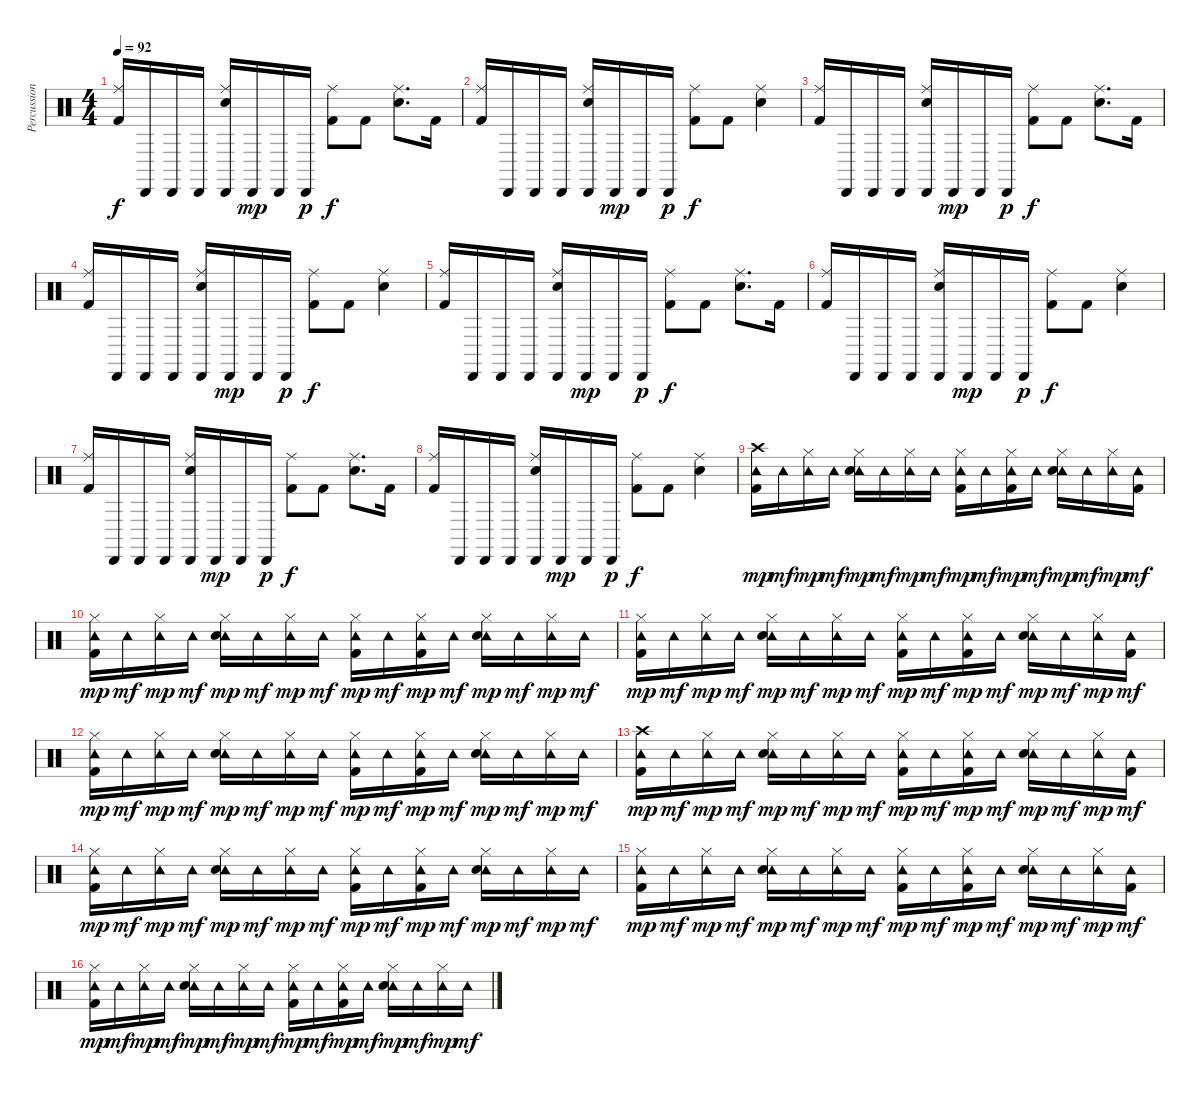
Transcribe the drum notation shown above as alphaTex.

\track ("Percussion" "Percussion") {instrument percussion}
\staff {score}
\articulation defaults
\ts (4 4)
\tempo 92
\clef neutral
\ks c
("Ride (middle)" "Kick (hit) 2").16{dy f} "Cabasa (hit)".16 "Cabasa (hit)".16 "Cabasa (hit)".16 ("Cabasa (hit)" "Ride (middle)" "Electric Snare (hit)").16 "Cabasa (hit)".16{dy mp} "Cabasa (hit)".16 "Cabasa (hit)".16{dy p} ("Ride (middle)" "Kick (hit) 2").8{dy f} "Kick (hit) 2".8 ("Ride (middle)" "Electric Snare (hit)").8{d} "Kick (hit) 2".16 |
("Ride (middle)" "Kick (hit) 2").16 "Cabasa (hit)".16 "Cabasa (hit)".16 "Cabasa (hit)".16 ("Cabasa (hit)" "Ride (middle)" "Electric Snare (hit)").16 "Cabasa (hit)".16{dy mp} "Cabasa (hit)".16 "Cabasa (hit)".16{dy p} ("Ride (middle)" "Kick (hit) 2").8{dy f} "Kick (hit) 2".8 ("Ride (middle)" "Electric Snare (hit)").4 |
("Ride (middle)" "Kick (hit) 2").16 "Cabasa (hit)".16 "Cabasa (hit)".16 "Cabasa (hit)".16 ("Cabasa (hit)" "Ride (middle)" "Electric Snare (hit)").16 "Cabasa (hit)".16{dy mp} "Cabasa (hit)".16 "Cabasa (hit)".16{dy p} ("Ride (middle)" "Kick (hit) 2").8{dy f} "Kick (hit) 2".8 ("Ride (middle)" "Electric Snare (hit)").8{d} "Kick (hit) 2".16 |
("Ride (middle)" "Kick (hit) 2").16 "Cabasa (hit)".16 "Cabasa (hit)".16 "Cabasa (hit)".16 ("Cabasa (hit)" "Ride (middle)" "Electric Snare (hit)").16 "Cabasa (hit)".16{dy mp} "Cabasa (hit)".16 "Cabasa (hit)".16{dy p} ("Ride (middle)" "Kick (hit) 2").8{dy f} "Kick (hit) 2".8 ("Ride (middle)" "Electric Snare (hit)").4 |
("Ride (middle)" "Kick (hit) 2").16 "Cabasa (hit)".16 "Cabasa (hit)".16 "Cabasa (hit)".16 ("Cabasa (hit)" "Ride (middle)" "Electric Snare (hit)").16 "Cabasa (hit)".16{dy mp} "Cabasa (hit)".16 "Cabasa (hit)".16{dy p} ("Ride (middle)" "Kick (hit) 2").8{dy f} "Kick (hit) 2".8 ("Ride (middle)" "Electric Snare (hit)").8{d} "Kick (hit) 2".16 |
("Ride (middle)" "Kick (hit) 2").16 "Cabasa (hit)".16 "Cabasa (hit)".16 "Cabasa (hit)".16 ("Cabasa (hit)" "Ride (middle)" "Electric Snare (hit)").16 "Cabasa (hit)".16{dy mp} "Cabasa (hit)".16 "Cabasa (hit)".16{dy p} ("Ride (middle)" "Kick (hit) 2").8{dy f} "Kick (hit) 2".8 ("Ride (middle)" "Electric Snare (hit)").4 |
("Ride (middle)" "Kick (hit) 2").16 "Cabasa (hit)".16 "Cabasa (hit)".16 "Cabasa (hit)".16 ("Cabasa (hit)" "Ride (middle)" "Electric Snare (hit)").16 "Cabasa (hit)".16{dy mp} "Cabasa (hit)".16 "Cabasa (hit)".16{dy p} ("Ride (middle)" "Kick (hit) 2").8{dy f} "Kick (hit) 2".8 ("Ride (middle)" "Electric Snare (hit)").8{d} "Kick (hit) 2".16 |
("Ride (middle)" "Kick (hit) 2").16 "Cabasa (hit)".16 "Cabasa (hit)".16 "Cabasa (hit)".16 ("Cabasa (hit)" "Ride (middle)" "Electric Snare (hit)").16 "Cabasa (hit)".16{dy mp} "Cabasa (hit)".16 "Cabasa (hit)".16{dy p} ("Ride (middle)" "Kick (hit) 2").8{dy f} "Kick (hit) 2".8 ("Ride (middle)" "Electric Snare (hit)").4 |
("Tambourine (hit)" "Crash high (hit)" "Kick (hit) 2").16{dy mp} "Tambourine (hit)".16{dy mf} ("Tambourine (hit)" "Hi-Hat (closed)").16{dy mp} "Tambourine (hit)".16{dy mf} ("Tambourine (hit)" "Hi-Hat (closed)" "Electric Snare (hit)").16{dy mp} "Tambourine (hit)".16{dy mf} ("Tambourine (hit)" "Hi-Hat (closed)").16{dy mp} "Tambourine (hit)".16{dy mf} ("Tambourine (hit)" "Hi-Hat (closed)" "Kick (hit) 2").16{dy mp} "Tambourine (hit)".16{dy mf} ("Tambourine (hit)" "Hi-Hat (closed)" "Kick (hit) 2").16{dy mp} "Tambourine (hit)".16{dy mf} ("Tambourine (hit)" "Hi-Hat (closed)" "Electric Snare (hit)").16{dy mp} "Tambourine (hit)".16{dy mf} ("Tambourine (hit)" "Hi-Hat (closed)").16{dy mp} ("Tambourine (hit)" "Kick (hit) 2").16{dy mf} |
("Tambourine (hit)" "Hi-Hat (closed)" "Kick (hit) 2").16{dy mp} "Tambourine (hit)".16{dy mf} ("Tambourine (hit)" "Hi-Hat (closed)").16{dy mp} "Tambourine (hit)".16{dy mf} ("Tambourine (hit)" "Hi-Hat (closed)" "Electric Snare (hit)").16{dy mp} "Tambourine (hit)".16{dy mf} ("Tambourine (hit)" "Hi-Hat (closed)").16{dy mp} "Tambourine (hit)".16{dy mf} ("Tambourine (hit)" "Hi-Hat (closed)" "Kick (hit) 2").16{dy mp} "Tambourine (hit)".16{dy mf} ("Tambourine (hit)" "Hi-Hat (closed)" "Kick (hit) 2").16{dy mp} "Tambourine (hit)".16{dy mf} ("Tambourine (hit)" "Hi-Hat (closed)" "Electric Snare (hit)").16{dy mp} "Tambourine (hit)".16{dy mf} ("Tambourine (hit)" "Hi-Hat (closed)").16{dy mp} "Tambourine (hit)".16{dy mf} |
("Tambourine (hit)" "Hi-Hat (closed)" "Kick (hit) 2").16{dy mp} "Tambourine (hit)".16{dy mf} ("Tambourine (hit)" "Hi-Hat (closed)").16{dy mp} "Tambourine (hit)".16{dy mf} ("Tambourine (hit)" "Hi-Hat (closed)" "Electric Snare (hit)").16{dy mp} "Tambourine (hit)".16{dy mf} ("Tambourine (hit)" "Hi-Hat (closed)").16{dy mp} "Tambourine (hit)".16{dy mf} ("Tambourine (hit)" "Hi-Hat (closed)" "Kick (hit) 2").16{dy mp} "Tambourine (hit)".16{dy mf} ("Tambourine (hit)" "Hi-Hat (closed)" "Kick (hit) 2").16{dy mp} "Tambourine (hit)".16{dy mf} ("Tambourine (hit)" "Hi-Hat (closed)" "Electric Snare (hit)").16{dy mp} "Tambourine (hit)".16{dy mf} ("Tambourine (hit)" "Hi-Hat (closed)").16{dy mp} ("Tambourine (hit)" "Kick (hit) 2").16{dy mf} |
("Tambourine (hit)" "Hi-Hat (closed)" "Kick (hit) 2").16{dy mp} "Tambourine (hit)".16{dy mf} ("Tambourine (hit)" "Hi-Hat (closed)").16{dy mp} "Tambourine (hit)".16{dy mf} ("Tambourine (hit)" "Hi-Hat (closed)" "Electric Snare (hit)").16{dy mp} "Tambourine (hit)".16{dy mf} ("Tambourine (hit)" "Hi-Hat (closed)").16{dy mp} "Tambourine (hit)".16{dy mf} ("Tambourine (hit)" "Hi-Hat (closed)" "Kick (hit) 2").16{dy mp} "Tambourine (hit)".16{dy mf} ("Tambourine (hit)" "Hi-Hat (closed)" "Kick (hit) 2").16{dy mp} "Tambourine (hit)".16{dy mf} ("Tambourine (hit)" "Hi-Hat (closed)" "Electric Snare (hit)").16{dy mp} "Tambourine (hit)".16{dy mf} ("Tambourine (hit)" "Hi-Hat (closed)").16{dy mp} "Tambourine (hit)".16{dy mf} |
("Tambourine (hit)" "Crash high (hit)" "Kick (hit) 2").16{dy mp} "Tambourine (hit)".16{dy mf} ("Tambourine (hit)" "Hi-Hat (closed)").16{dy mp} "Tambourine (hit)".16{dy mf} ("Tambourine (hit)" "Hi-Hat (closed)" "Electric Snare (hit)").16{dy mp} "Tambourine (hit)".16{dy mf} ("Tambourine (hit)" "Hi-Hat (closed)").16{dy mp} "Tambourine (hit)".16{dy mf} ("Tambourine (hit)" "Hi-Hat (closed)" "Kick (hit) 2").16{dy mp} "Tambourine (hit)".16{dy mf} ("Tambourine (hit)" "Hi-Hat (closed)" "Kick (hit) 2").16{dy mp} "Tambourine (hit)".16{dy mf} ("Tambourine (hit)" "Hi-Hat (closed)" "Electric Snare (hit)").16{dy mp} "Tambourine (hit)".16{dy mf} ("Tambourine (hit)" "Hi-Hat (closed)").16{dy mp} ("Tambourine (hit)" "Kick (hit) 2").16{dy mf} |
("Tambourine (hit)" "Hi-Hat (closed)" "Kick (hit) 2").16{dy mp} "Tambourine (hit)".16{dy mf} ("Tambourine (hit)" "Hi-Hat (closed)").16{dy mp} "Tambourine (hit)".16{dy mf} ("Tambourine (hit)" "Hi-Hat (closed)" "Electric Snare (hit)").16{dy mp} "Tambourine (hit)".16{dy mf} ("Tambourine (hit)" "Hi-Hat (closed)").16{dy mp} "Tambourine (hit)".16{dy mf} ("Tambourine (hit)" "Hi-Hat (closed)" "Kick (hit) 2").16{dy mp} "Tambourine (hit)".16{dy mf} ("Tambourine (hit)" "Hi-Hat (closed)" "Kick (hit) 2").16{dy mp} "Tambourine (hit)".16{dy mf} ("Tambourine (hit)" "Hi-Hat (closed)" "Electric Snare (hit)").16{dy mp} "Tambourine (hit)".16{dy mf} ("Tambourine (hit)" "Hi-Hat (closed)").16{dy mp} "Tambourine (hit)".16{dy mf} |
("Tambourine (hit)" "Hi-Hat (closed)" "Kick (hit) 2").16{dy mp} "Tambourine (hit)".16{dy mf} ("Tambourine (hit)" "Hi-Hat (closed)").16{dy mp} "Tambourine (hit)".16{dy mf} ("Tambourine (hit)" "Hi-Hat (closed)" "Electric Snare (hit)").16{dy mp} "Tambourine (hit)".16{dy mf} ("Tambourine (hit)" "Hi-Hat (closed)").16{dy mp} "Tambourine (hit)".16{dy mf} ("Tambourine (hit)" "Hi-Hat (closed)" "Kick (hit) 2").16{dy mp} "Tambourine (hit)".16{dy mf} ("Tambourine (hit)" "Hi-Hat (closed)" "Kick (hit) 2").16{dy mp} "Tambourine (hit)".16{dy mf} ("Tambourine (hit)" "Hi-Hat (closed)" "Electric Snare (hit)").16{dy mp} "Tambourine (hit)".16{dy mf} ("Tambourine (hit)" "Hi-Hat (closed)").16{dy mp} ("Tambourine (hit)" "Kick (hit) 2").16{dy mf} |
("Tambourine (hit)" "Hi-Hat (closed)" "Kick (hit) 2").16{dy mp} "Tambourine (hit)".16{dy mf} ("Tambourine (hit)" "Hi-Hat (closed)").16{dy mp} "Tambourine (hit)".16{dy mf} ("Tambourine (hit)" "Hi-Hat (closed)" "Electric Snare (hit)").16{dy mp} "Tambourine (hit)".16{dy mf} ("Tambourine (hit)" "Hi-Hat (closed)").16{dy mp} "Tambourine (hit)".16{dy mf} ("Tambourine (hit)" "Hi-Hat (closed)" "Kick (hit) 2").16{dy mp} "Tambourine (hit)".16{dy mf} ("Tambourine (hit)" "Hi-Hat (closed)" "Kick (hit) 2").16{dy mp} "Tambourine (hit)".16{dy mf} ("Tambourine (hit)" "Hi-Hat (closed)" "Electric Snare (hit)").16{dy mp} "Tambourine (hit)".16{dy mf} ("Tambourine (hit)" "Hi-Hat (closed)").16{dy mp} "Tambourine (hit)".16{dy mf}
